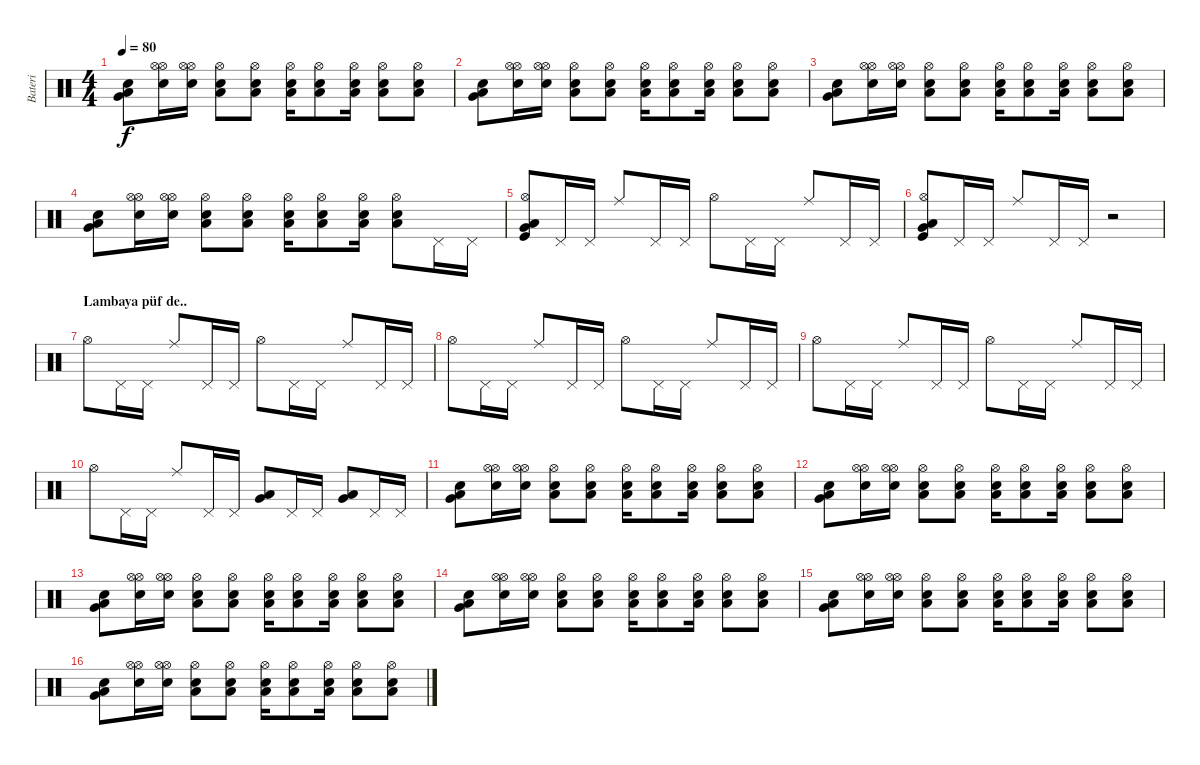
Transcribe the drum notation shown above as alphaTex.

\track ("Bateri" "Bateri") {instrument percussion}
\staff {score}
\articulation defaults
\ts (4 4)
\tempo 80
\clef neutral
\ks c
("Electric Snare (hit)" "Low Floor Tom (hit)" "Very Low Tom (hit)").8{dy f} ("Hi-Hat (open)" "Hi-Hat (open)" "Electric Snare (hit)").16 ("Hi-Hat (open)" "Hi-Hat (open)" "Electric Snare (hit)").16 ("Low Floor Tom (hit)" "Hi-Hat (open)" "Electric Snare (hit)").8 ("Low Floor Tom (hit)" "Hi-Hat (open)" "Electric Snare (hit)").8 ("Low Floor Tom (hit)" "Hi-Hat (open)" "Electric Snare (hit)").16 ("Low Floor Tom (hit)" "Hi-Hat (open)" "Electric Snare (hit)").8 ("Low Floor Tom (hit)" "Hi-Hat (open)" "Electric Snare (hit)").16 ("Low Floor Tom (hit)" "Hi-Hat (open)" "Electric Snare (hit)").8 ("Low Floor Tom (hit)" "Hi-Hat (open)" "Electric Snare (hit)").8 |
("Electric Snare (hit)" "Low Floor Tom (hit)" "Very Low Tom (hit)").8 ("Hi-Hat (open)" "Hi-Hat (open)" "Electric Snare (hit)").16 ("Hi-Hat (open)" "Hi-Hat (open)" "Electric Snare (hit)").16 ("Low Floor Tom (hit)" "Hi-Hat (open)" "Electric Snare (hit)").8 ("Low Floor Tom (hit)" "Hi-Hat (open)" "Electric Snare (hit)").8 ("Low Floor Tom (hit)" "Hi-Hat (open)" "Electric Snare (hit)").16 ("Low Floor Tom (hit)" "Hi-Hat (open)" "Electric Snare (hit)").8 ("Low Floor Tom (hit)" "Hi-Hat (open)" "Electric Snare (hit)").16 ("Low Floor Tom (hit)" "Hi-Hat (open)" "Electric Snare (hit)").8 ("Low Floor Tom (hit)" "Hi-Hat (open)" "Electric Snare (hit)").8 |
("Electric Snare (hit)" "Low Floor Tom (hit)" "Very Low Tom (hit)").8 ("Hi-Hat (open)" "Hi-Hat (open)" "Electric Snare (hit)").16 ("Hi-Hat (open)" "Hi-Hat (open)" "Electric Snare (hit)").16 ("Low Floor Tom (hit)" "Hi-Hat (open)" "Electric Snare (hit)").8 ("Low Floor Tom (hit)" "Hi-Hat (open)" "Electric Snare (hit)").8 ("Low Floor Tom (hit)" "Hi-Hat (open)" "Electric Snare (hit)").16 ("Low Floor Tom (hit)" "Hi-Hat (open)" "Electric Snare (hit)").8 ("Low Floor Tom (hit)" "Hi-Hat (open)" "Electric Snare (hit)").16 ("Low Floor Tom (hit)" "Hi-Hat (open)" "Electric Snare (hit)").8 ("Low Floor Tom (hit)" "Hi-Hat (open)" "Electric Snare (hit)").8 |
("Electric Snare (hit)" "Low Floor Tom (hit)" "Very Low Tom (hit)").8 ("Hi-Hat (open)" "Hi-Hat (open)" "Electric Snare (hit)").16 ("Hi-Hat (open)" "Hi-Hat (open)" "Electric Snare (hit)").16 ("Low Floor Tom (hit)" "Hi-Hat (open)" "Electric Snare (hit)").8 ("Low Floor Tom (hit)" "Hi-Hat (open)" "Electric Snare (hit)").8 ("Low Floor Tom (hit)" "Hi-Hat (open)" "Electric Snare (hit)").16 ("Low Floor Tom (hit)" "Hi-Hat (open)" "Electric Snare (hit)").8 ("Low Floor Tom (hit)" "Hi-Hat (open)" "Electric Snare (hit)").16 ("Low Floor Tom (hit)" "Hi-Hat (open)" "Electric Snare (hit)").8 "Pedal Hi-Hat (hit)".16 "Pedal Hi-Hat (hit)".16 |
("Hi-Hat (open)" "Kick (hit)" "Very Low Tom (hit)" "Low Floor Tom (hit)").8 "Pedal Hi-Hat (hit)".16 "Pedal Hi-Hat (hit)".16 "Ride (middle)".8 "Pedal Hi-Hat (hit)".16 "Pedal Hi-Hat (hit)".16 "Hi-Hat (open)".8 "Pedal Hi-Hat (hit)".16 "Pedal Hi-Hat (hit)".16 "Ride (middle)".8 "Pedal Hi-Hat (hit)".16 "Pedal Hi-Hat (hit)".16 |
("Hi-Hat (open)" "Kick (hit)" "Very Low Tom (hit)" "Low Floor Tom (hit)").8 "Pedal Hi-Hat (hit)".16 "Pedal Hi-Hat (hit)".16 "Ride (middle)".8 "Pedal Hi-Hat (hit)".16 "Pedal Hi-Hat (hit)".16 r.2 |
\section ("" "Lambaya püf de..")
"Hi-Hat (open)".8 "Pedal Hi-Hat (hit)".16 "Pedal Hi-Hat (hit)".16 "Ride (middle)".8 "Pedal Hi-Hat (hit)".16 "Pedal Hi-Hat (hit)".16 "Hi-Hat (open)".8 "Pedal Hi-Hat (hit)".16 "Pedal Hi-Hat (hit)".16 "Ride (middle)".8 "Pedal Hi-Hat (hit)".16 "Pedal Hi-Hat (hit)".16 |
"Hi-Hat (open)".8 "Pedal Hi-Hat (hit)".16 "Pedal Hi-Hat (hit)".16 "Ride (middle)".8 "Pedal Hi-Hat (hit)".16 "Pedal Hi-Hat (hit)".16 "Hi-Hat (open)".8 "Pedal Hi-Hat (hit)".16 "Pedal Hi-Hat (hit)".16 "Ride (middle)".8 "Pedal Hi-Hat (hit)".16 "Pedal Hi-Hat (hit)".16 |
"Hi-Hat (open)".8 "Pedal Hi-Hat (hit)".16 "Pedal Hi-Hat (hit)".16 "Ride (middle)".8 "Pedal Hi-Hat (hit)".16 "Pedal Hi-Hat (hit)".16 "Hi-Hat (open)".8 "Pedal Hi-Hat (hit)".16 "Pedal Hi-Hat (hit)".16 "Ride (middle)".8 "Pedal Hi-Hat (hit)".16 "Pedal Hi-Hat (hit)".16 |
"Hi-Hat (open)".8 "Pedal Hi-Hat (hit)".16 "Pedal Hi-Hat (hit)".16 "Ride (middle)".8 "Pedal Hi-Hat (hit)".16 "Pedal Hi-Hat (hit)".16 ("Low Floor Tom (hit)" "Very Low Tom (hit)").8 "Pedal Hi-Hat (hit)".16 "Pedal Hi-Hat (hit)".16 ("Low Floor Tom (hit)" "Very Low Tom (hit)").8 "Pedal Hi-Hat (hit)".16 "Pedal Hi-Hat (hit)".16 |
("Electric Snare (hit)" "Low Floor Tom (hit)" "Very Low Tom (hit)").8 ("Hi-Hat (open)" "Hi-Hat (open)" "Electric Snare (hit)").16 ("Hi-Hat (open)" "Hi-Hat (open)" "Electric Snare (hit)").16 ("Low Floor Tom (hit)" "Hi-Hat (open)" "Electric Snare (hit)").8 ("Low Floor Tom (hit)" "Hi-Hat (open)" "Electric Snare (hit)").8 ("Low Floor Tom (hit)" "Hi-Hat (open)" "Electric Snare (hit)").16 ("Low Floor Tom (hit)" "Hi-Hat (open)" "Electric Snare (hit)").8 ("Low Floor Tom (hit)" "Hi-Hat (open)" "Electric Snare (hit)").16 ("Low Floor Tom (hit)" "Hi-Hat (open)" "Electric Snare (hit)").8 ("Low Floor Tom (hit)" "Hi-Hat (open)" "Electric Snare (hit)").8 |
("Electric Snare (hit)" "Low Floor Tom (hit)" "Very Low Tom (hit)").8 ("Hi-Hat (open)" "Hi-Hat (open)" "Electric Snare (hit)").16 ("Hi-Hat (open)" "Hi-Hat (open)" "Electric Snare (hit)").16 ("Low Floor Tom (hit)" "Hi-Hat (open)" "Electric Snare (hit)").8 ("Low Floor Tom (hit)" "Hi-Hat (open)" "Electric Snare (hit)").8 ("Low Floor Tom (hit)" "Hi-Hat (open)" "Electric Snare (hit)").16 ("Low Floor Tom (hit)" "Hi-Hat (open)" "Electric Snare (hit)").8 ("Low Floor Tom (hit)" "Hi-Hat (open)" "Electric Snare (hit)").16 ("Low Floor Tom (hit)" "Hi-Hat (open)" "Electric Snare (hit)").8 ("Low Floor Tom (hit)" "Hi-Hat (open)" "Electric Snare (hit)").8 |
("Electric Snare (hit)" "Low Floor Tom (hit)" "Very Low Tom (hit)").8 ("Hi-Hat (open)" "Hi-Hat (open)" "Electric Snare (hit)").16 ("Hi-Hat (open)" "Hi-Hat (open)" "Electric Snare (hit)").16 ("Low Floor Tom (hit)" "Hi-Hat (open)" "Electric Snare (hit)").8 ("Low Floor Tom (hit)" "Hi-Hat (open)" "Electric Snare (hit)").8 ("Low Floor Tom (hit)" "Hi-Hat (open)" "Electric Snare (hit)").16 ("Low Floor Tom (hit)" "Hi-Hat (open)" "Electric Snare (hit)").8 ("Low Floor Tom (hit)" "Hi-Hat (open)" "Electric Snare (hit)").16 ("Low Floor Tom (hit)" "Hi-Hat (open)" "Electric Snare (hit)").8 ("Low Floor Tom (hit)" "Hi-Hat (open)" "Electric Snare (hit)").8 |
("Electric Snare (hit)" "Low Floor Tom (hit)" "Very Low Tom (hit)").8 ("Hi-Hat (open)" "Hi-Hat (open)" "Electric Snare (hit)").16 ("Hi-Hat (open)" "Hi-Hat (open)" "Electric Snare (hit)").16 ("Low Floor Tom (hit)" "Hi-Hat (open)" "Electric Snare (hit)").8 ("Low Floor Tom (hit)" "Hi-Hat (open)" "Electric Snare (hit)").8 ("Low Floor Tom (hit)" "Hi-Hat (open)" "Electric Snare (hit)").16 ("Low Floor Tom (hit)" "Hi-Hat (open)" "Electric Snare (hit)").8 ("Low Floor Tom (hit)" "Hi-Hat (open)" "Electric Snare (hit)").16 ("Low Floor Tom (hit)" "Hi-Hat (open)" "Electric Snare (hit)").8 ("Low Floor Tom (hit)" "Hi-Hat (open)" "Electric Snare (hit)").8 |
("Electric Snare (hit)" "Low Floor Tom (hit)" "Very Low Tom (hit)").8 ("Hi-Hat (open)" "Hi-Hat (open)" "Electric Snare (hit)").16 ("Hi-Hat (open)" "Hi-Hat (open)" "Electric Snare (hit)").16 ("Low Floor Tom (hit)" "Hi-Hat (open)" "Electric Snare (hit)").8 ("Low Floor Tom (hit)" "Hi-Hat (open)" "Electric Snare (hit)").8 ("Low Floor Tom (hit)" "Hi-Hat (open)" "Electric Snare (hit)").16 ("Low Floor Tom (hit)" "Hi-Hat (open)" "Electric Snare (hit)").8 ("Low Floor Tom (hit)" "Hi-Hat (open)" "Electric Snare (hit)").16 ("Low Floor Tom (hit)" "Hi-Hat (open)" "Electric Snare (hit)").8 ("Low Floor Tom (hit)" "Hi-Hat (open)" "Electric Snare (hit)").8 |
("Electric Snare (hit)" "Low Floor Tom (hit)" "Very Low Tom (hit)").8 ("Hi-Hat (open)" "Hi-Hat (open)" "Electric Snare (hit)").16 ("Hi-Hat (open)" "Hi-Hat (open)" "Electric Snare (hit)").16 ("Low Floor Tom (hit)" "Hi-Hat (open)" "Electric Snare (hit)").8 ("Low Floor Tom (hit)" "Hi-Hat (open)" "Electric Snare (hit)").8 ("Low Floor Tom (hit)" "Hi-Hat (open)" "Electric Snare (hit)").16 ("Low Floor Tom (hit)" "Hi-Hat (open)" "Electric Snare (hit)").8 ("Low Floor Tom (hit)" "Hi-Hat (open)" "Electric Snare (hit)").16 ("Low Floor Tom (hit)" "Hi-Hat (open)" "Electric Snare (hit)").8 ("Low Floor Tom (hit)" "Hi-Hat (open)" "Electric Snare (hit)").8
